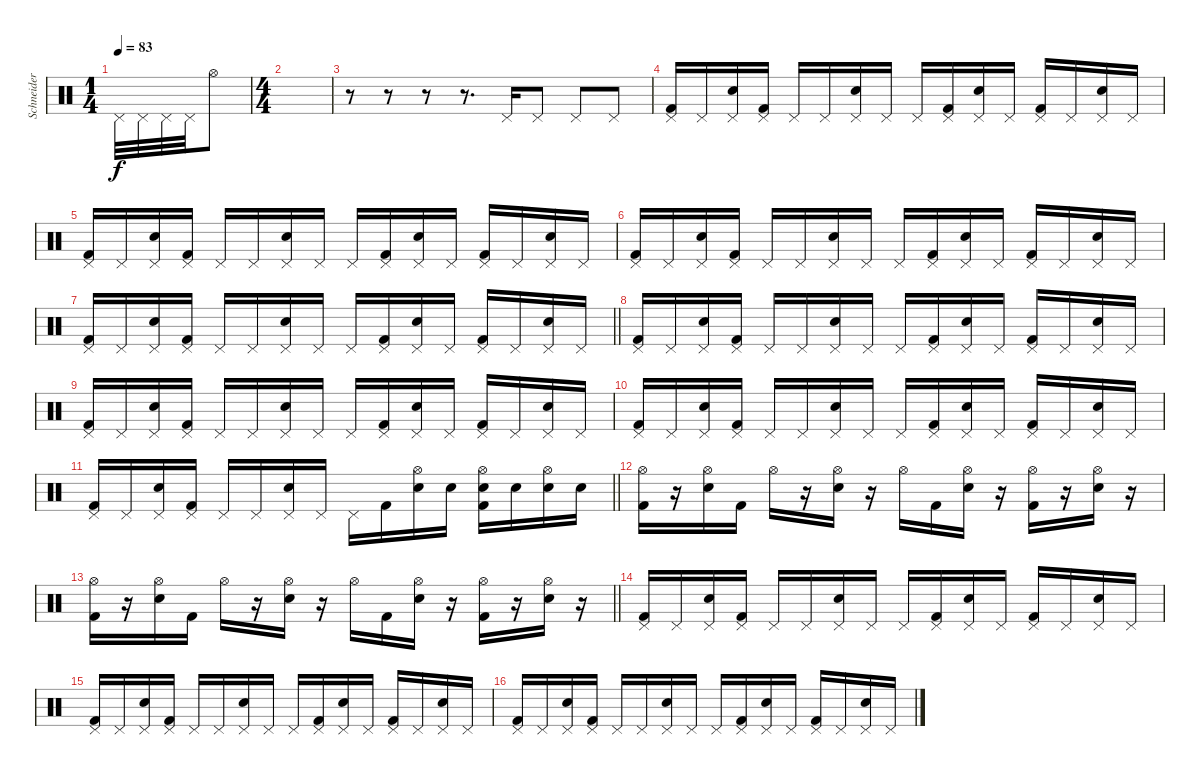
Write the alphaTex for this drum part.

\track ("Schneider" "Schneider") {instrument percussion}
\staff {score}
\articulation defaults
\ts (1 4)
\tempo 83
\clef neutral
\ks c "Pedal Hi-Hat (hit)".32{dy f} "Pedal Hi-Hat (hit)".32 "Pedal Hi-Hat (hit)".32 "Pedal Hi-Hat (hit)".32 "Hi-Hat (open)".8
|
\ts (4 4)
|
r.8 r.8 r.8 r.8{d} "Pedal Hi-Hat (hit)".16 "Pedal Hi-Hat (hit)".8 "Pedal Hi-Hat (hit)".8 "Pedal Hi-Hat (hit)".8 |
("Pedal Hi-Hat (hit)" "Kick (hit) 2").16{volume 12} "Pedal Hi-Hat (hit)".16 ("Pedal Hi-Hat (hit)" "Electric Snare (hit)").16 ("Pedal Hi-Hat (hit)" "Kick (hit) 2").16 "Pedal Hi-Hat (hit)".16 "Pedal Hi-Hat (hit)".16 ("Pedal Hi-Hat (hit)" "Electric Snare (hit)").16 "Pedal Hi-Hat (hit)".16 "Pedal Hi-Hat (hit)".16 ("Pedal Hi-Hat (hit)" "Kick (hit) 2").16 ("Pedal Hi-Hat (hit)" "Electric Snare (hit)").16 "Pedal Hi-Hat (hit)".16 ("Pedal Hi-Hat (hit)" "Kick (hit) 2").16 "Pedal Hi-Hat (hit)".16 ("Pedal Hi-Hat (hit)" "Electric Snare (hit)").16 "Pedal Hi-Hat (hit)".16 |
("Pedal Hi-Hat (hit)" "Kick (hit) 2").16{volume 12} "Pedal Hi-Hat (hit)".16 ("Pedal Hi-Hat (hit)" "Electric Snare (hit)").16 ("Pedal Hi-Hat (hit)" "Kick (hit) 2").16 "Pedal Hi-Hat (hit)".16 "Pedal Hi-Hat (hit)".16 ("Pedal Hi-Hat (hit)" "Electric Snare (hit)").16 "Pedal Hi-Hat (hit)".16 "Pedal Hi-Hat (hit)".16 ("Pedal Hi-Hat (hit)" "Kick (hit) 2").16 ("Pedal Hi-Hat (hit)" "Electric Snare (hit)").16 "Pedal Hi-Hat (hit)".16 ("Pedal Hi-Hat (hit)" "Kick (hit) 2").16 "Pedal Hi-Hat (hit)".16 ("Pedal Hi-Hat (hit)" "Electric Snare (hit)").16 "Pedal Hi-Hat (hit)".16 |
("Pedal Hi-Hat (hit)" "Kick (hit) 2").16{volume 12} "Pedal Hi-Hat (hit)".16 ("Pedal Hi-Hat (hit)" "Electric Snare (hit)").16 ("Pedal Hi-Hat (hit)" "Kick (hit) 2").16 "Pedal Hi-Hat (hit)".16 "Pedal Hi-Hat (hit)".16 ("Pedal Hi-Hat (hit)" "Electric Snare (hit)").16 "Pedal Hi-Hat (hit)".16 "Pedal Hi-Hat (hit)".16 ("Pedal Hi-Hat (hit)" "Kick (hit) 2").16 ("Pedal Hi-Hat (hit)" "Electric Snare (hit)").16 "Pedal Hi-Hat (hit)".16 ("Pedal Hi-Hat (hit)" "Kick (hit) 2").16 "Pedal Hi-Hat (hit)".16 ("Pedal Hi-Hat (hit)" "Electric Snare (hit)").16 "Pedal Hi-Hat (hit)".16 |
\barLineRight lightlight
("Pedal Hi-Hat (hit)" "Kick (hit) 2").16{volume 12} "Pedal Hi-Hat (hit)".16 ("Pedal Hi-Hat (hit)" "Electric Snare (hit)").16 ("Pedal Hi-Hat (hit)" "Kick (hit) 2").16 "Pedal Hi-Hat (hit)".16 "Pedal Hi-Hat (hit)".16 ("Pedal Hi-Hat (hit)" "Electric Snare (hit)").16 "Pedal Hi-Hat (hit)".16 "Pedal Hi-Hat (hit)".16 ("Pedal Hi-Hat (hit)" "Kick (hit) 2").16 ("Pedal Hi-Hat (hit)" "Electric Snare (hit)").16 "Pedal Hi-Hat (hit)".16 ("Pedal Hi-Hat (hit)" "Kick (hit) 2").16 "Pedal Hi-Hat (hit)".16 ("Pedal Hi-Hat (hit)" "Electric Snare (hit)").16 "Pedal Hi-Hat (hit)".16 |
("Pedal Hi-Hat (hit)" "Kick (hit) 2").16{volume 12} "Pedal Hi-Hat (hit)".16 ("Pedal Hi-Hat (hit)" "Electric Snare (hit)").16 ("Pedal Hi-Hat (hit)" "Kick (hit) 2").16 "Pedal Hi-Hat (hit)".16 "Pedal Hi-Hat (hit)".16 ("Pedal Hi-Hat (hit)" "Electric Snare (hit)").16 "Pedal Hi-Hat (hit)".16 "Pedal Hi-Hat (hit)".16 ("Pedal Hi-Hat (hit)" "Kick (hit) 2").16 ("Pedal Hi-Hat (hit)" "Electric Snare (hit)").16 "Pedal Hi-Hat (hit)".16 ("Pedal Hi-Hat (hit)" "Kick (hit) 2").16 "Pedal Hi-Hat (hit)".16 ("Pedal Hi-Hat (hit)" "Electric Snare (hit)").16 "Pedal Hi-Hat (hit)".16 |
("Pedal Hi-Hat (hit)" "Kick (hit) 2").16{volume 12} "Pedal Hi-Hat (hit)".16 ("Pedal Hi-Hat (hit)" "Electric Snare (hit)").16 ("Pedal Hi-Hat (hit)" "Kick (hit) 2").16 "Pedal Hi-Hat (hit)".16 "Pedal Hi-Hat (hit)".16 ("Pedal Hi-Hat (hit)" "Electric Snare (hit)").16 "Pedal Hi-Hat (hit)".16 "Pedal Hi-Hat (hit)".16 ("Pedal Hi-Hat (hit)" "Kick (hit) 2").16 ("Pedal Hi-Hat (hit)" "Electric Snare (hit)").16 "Pedal Hi-Hat (hit)".16 ("Pedal Hi-Hat (hit)" "Kick (hit) 2").16 "Pedal Hi-Hat (hit)".16 ("Pedal Hi-Hat (hit)" "Electric Snare (hit)").16 "Pedal Hi-Hat (hit)".16 |
("Pedal Hi-Hat (hit)" "Kick (hit) 2").16{volume 12} "Pedal Hi-Hat (hit)".16 ("Pedal Hi-Hat (hit)" "Electric Snare (hit)").16 ("Pedal Hi-Hat (hit)" "Kick (hit) 2").16 "Pedal Hi-Hat (hit)".16 "Pedal Hi-Hat (hit)".16 ("Pedal Hi-Hat (hit)" "Electric Snare (hit)").16 "Pedal Hi-Hat (hit)".16 "Pedal Hi-Hat (hit)".16 ("Pedal Hi-Hat (hit)" "Kick (hit) 2").16 ("Pedal Hi-Hat (hit)" "Electric Snare (hit)").16 "Pedal Hi-Hat (hit)".16 ("Pedal Hi-Hat (hit)" "Kick (hit) 2").16 "Pedal Hi-Hat (hit)".16 ("Pedal Hi-Hat (hit)" "Electric Snare (hit)").16 "Pedal Hi-Hat (hit)".16 |
\barLineRight lightlight
("Pedal Hi-Hat (hit)" "Kick (hit) 2").16{volume 12} "Pedal Hi-Hat (hit)".16 ("Pedal Hi-Hat (hit)" "Electric Snare (hit)").16 ("Pedal Hi-Hat (hit)" "Kick (hit) 2").16 "Pedal Hi-Hat (hit)".16 "Pedal Hi-Hat (hit)".16 ("Pedal Hi-Hat (hit)" "Electric Snare (hit)").16 "Pedal Hi-Hat (hit)".16 "Pedal Hi-Hat (hit)".16 "Kick (hit) 2".16 ("Hi-Hat (open)" "Electric Snare (hit)").16 "Electric Snare (hit)".16 ("Hi-Hat (open)" "Electric Snare (hit)" "Kick (hit) 2").16 "Electric Snare (hit)".16 ("Hi-Hat (open)" "Electric Snare (hit)").16 "Electric Snare (hit)".16 |
("Hi-Hat (open)" "Kick (hit) 2").16 r.16 ("Hi-Hat (open)" "Electric Snare (hit)").16 "Kick (hit) 2".16 "Hi-Hat (open)".16 r.16 ("Hi-Hat (open)" "Electric Snare (hit)").16 r.16 "Hi-Hat (open)".16 "Kick (hit) 2".16 ("Hi-Hat (open)" "Electric Snare (hit)").16 r.16 ("Hi-Hat (open)" "Kick (hit) 2").16 r.16 ("Hi-Hat (open)" "Electric Snare (hit)").16 r.16 |
\barLineRight lightlight
("Hi-Hat (open)" "Kick (hit) 2").16 r.16 ("Hi-Hat (open)" "Electric Snare (hit)").16 "Kick (hit) 2".16 "Hi-Hat (open)".16 r.16 ("Hi-Hat (open)" "Electric Snare (hit)").16 r.16 "Hi-Hat (open)".16 "Kick (hit) 2".16 ("Hi-Hat (open)" "Electric Snare (hit)").16 r.16 ("Hi-Hat (open)" "Kick (hit) 2").16 r.16 ("Hi-Hat (open)" "Electric Snare (hit)").16 r.16 |
("Pedal Hi-Hat (hit)" "Kick (hit) 2").16{volume 12} "Pedal Hi-Hat (hit)".16 ("Pedal Hi-Hat (hit)" "Electric Snare (hit)").16 ("Pedal Hi-Hat (hit)" "Kick (hit) 2").16 "Pedal Hi-Hat (hit)".16 "Pedal Hi-Hat (hit)".16 ("Pedal Hi-Hat (hit)" "Electric Snare (hit)").16 "Pedal Hi-Hat (hit)".16 "Pedal Hi-Hat (hit)".16 ("Pedal Hi-Hat (hit)" "Kick (hit) 2").16 ("Pedal Hi-Hat (hit)" "Electric Snare (hit)").16 "Pedal Hi-Hat (hit)".16 ("Pedal Hi-Hat (hit)" "Kick (hit) 2").16 "Pedal Hi-Hat (hit)".16 ("Pedal Hi-Hat (hit)" "Electric Snare (hit)").16 "Pedal Hi-Hat (hit)".16 |
("Pedal Hi-Hat (hit)" "Kick (hit) 2").16{volume 12} "Pedal Hi-Hat (hit)".16 ("Pedal Hi-Hat (hit)" "Electric Snare (hit)").16 ("Pedal Hi-Hat (hit)" "Kick (hit) 2").16 "Pedal Hi-Hat (hit)".16 "Pedal Hi-Hat (hit)".16 ("Pedal Hi-Hat (hit)" "Electric Snare (hit)").16 "Pedal Hi-Hat (hit)".16 "Pedal Hi-Hat (hit)".16 ("Pedal Hi-Hat (hit)" "Kick (hit) 2").16 ("Pedal Hi-Hat (hit)" "Electric Snare (hit)").16 "Pedal Hi-Hat (hit)".16 ("Pedal Hi-Hat (hit)" "Kick (hit) 2").16 "Pedal Hi-Hat (hit)".16 ("Pedal Hi-Hat (hit)" "Electric Snare (hit)").16 "Pedal Hi-Hat (hit)".16 |
("Pedal Hi-Hat (hit)" "Kick (hit) 2").16{volume 12} "Pedal Hi-Hat (hit)".16 ("Pedal Hi-Hat (hit)" "Electric Snare (hit)").16 ("Pedal Hi-Hat (hit)" "Kick (hit) 2").16 "Pedal Hi-Hat (hit)".16 "Pedal Hi-Hat (hit)".16 ("Pedal Hi-Hat (hit)" "Electric Snare (hit)").16 "Pedal Hi-Hat (hit)".16 "Pedal Hi-Hat (hit)".16 ("Pedal Hi-Hat (hit)" "Kick (hit) 2").16 ("Pedal Hi-Hat (hit)" "Electric Snare (hit)").16 "Pedal Hi-Hat (hit)".16 ("Pedal Hi-Hat (hit)" "Kick (hit) 2").16 "Pedal Hi-Hat (hit)".16 ("Pedal Hi-Hat (hit)" "Electric Snare (hit)").16 "Pedal Hi-Hat (hit)".16
